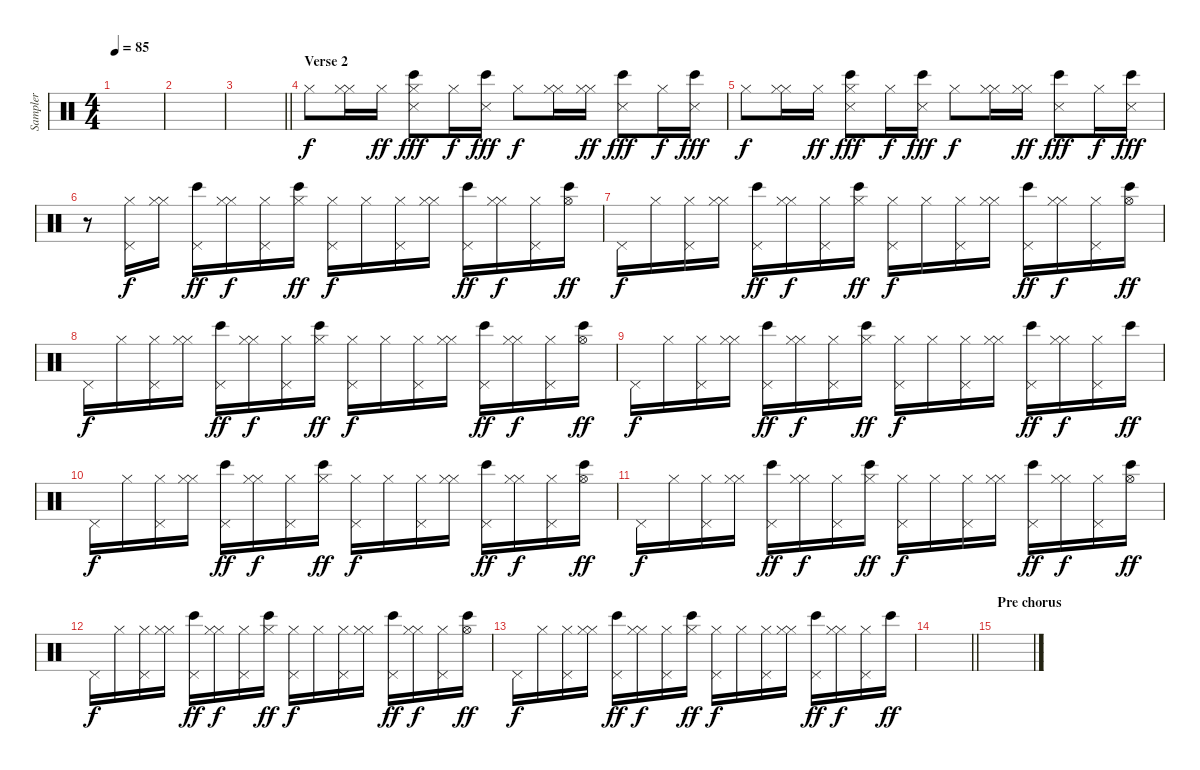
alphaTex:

\track ("Sampler" "Sampler") {instrument percussion}
\staff {score}
\articulation defaults
\ts (4 4)
\tempo 85
\clef neutral
\ks c
|
|
\barLineRight lightlight
|
\section ("" "Verse 2")
"Hi-Hat (closed)".8{dy f} ("Hi-Hat (closed)" "Hi-Hat (closed)").16 "Hi-Hat (closed)".16{dy ff} ("Hi-Hat (closed)" "Snare (side stick) 3" "Bongo High (hit)").8{dy fff} "Hi-Hat (closed)".16{dy f} ("Snare (side stick) 3" "Bongo High (hit)").16{dy fff} "Hi-Hat (closed)".8{dy f} ("Hi-Hat (closed)" "Hi-Hat (closed)").16 ("Hi-Hat (closed)" "Hi-Hat (closed)").16{dy ff} ("Snare (side stick) 3" "Bongo High (hit)").8{dy fff} "Hi-Hat (closed)".16{dy f} ("Snare (side stick) 3" "Bongo High (hit)").16{dy fff} |
"Hi-Hat (closed)".8{dy f} ("Hi-Hat (closed)" "Hi-Hat (closed)").16 "Hi-Hat (closed)".16{dy ff} ("Hi-Hat (closed)" "Snare (side stick) 3" "Bongo High (hit)").8{dy fff} "Hi-Hat (closed)".16{dy f} ("Snare (side stick) 3" "Bongo High (hit)").16{dy fff} "Hi-Hat (closed)".8{dy f} ("Hi-Hat (closed)" "Hi-Hat (closed)").16 ("Hi-Hat (closed)" "Hi-Hat (closed)").16{dy ff} ("Snare (side stick) 3" "Bongo High (hit)").8{dy fff} "Hi-Hat (closed)".16{dy f} ("Snare (side stick) 3" "Bongo High (hit)").16{dy fff} |
r.8 ("Pedal Hi-Hat (hit)" "Hi-Hat (closed)").16{dy f} ("Hi-Hat (closed)" "Hi-Hat (closed)").16 ("Pedal Hi-Hat (hit)" "Bongo High (hit)").16{dy ff} ("Hi-Hat (closed)" "Hi-Hat (closed)").16{dy f} ("Pedal Hi-Hat (hit)" "Hi-Hat (closed)").16 ("Hi-Hat (closed)" "Bongo High (hit)").16{dy ff} ("Pedal Hi-Hat (hit)" "Hi-Hat (closed)").16{dy f} "Hi-Hat (closed)".16 ("Pedal Hi-Hat (hit)" "Hi-Hat (closed)").16 ("Hi-Hat (closed)" "Hi-Hat (closed)").16 ("Pedal Hi-Hat (hit)" "Bongo High (hit)").16{dy ff} ("Hi-Hat (closed)" "Hi-Hat (closed)").16{dy f} ("Pedal Hi-Hat (hit)" "Hi-Hat (closed)").16 ("Hi-Hat (open)" "Bongo High (hit)").16{dy ff} |
"Pedal Hi-Hat (hit)".16{dy f} "Hi-Hat (closed)".16 ("Pedal Hi-Hat (hit)" "Hi-Hat (closed)").16 ("Hi-Hat (closed)" "Hi-Hat (closed)").16 ("Pedal Hi-Hat (hit)" "Bongo High (hit)").16{dy ff} ("Hi-Hat (closed)" "Hi-Hat (closed)").16{dy f} ("Pedal Hi-Hat (hit)" "Hi-Hat (closed)").16 ("Hi-Hat (closed)" "Bongo High (hit)").16{dy ff} ("Pedal Hi-Hat (hit)" "Hi-Hat (closed)").16{dy f} "Hi-Hat (closed)".16 ("Pedal Hi-Hat (hit)" "Hi-Hat (closed)").16 ("Hi-Hat (closed)" "Hi-Hat (closed)").16 ("Pedal Hi-Hat (hit)" "Bongo High (hit)").16{dy ff} ("Hi-Hat (closed)" "Hi-Hat (closed)").16{dy f} ("Pedal Hi-Hat (hit)" "Hi-Hat (closed)").16 ("Hi-Hat (open)" "Bongo High (hit)").16{dy ff} |
"Pedal Hi-Hat (hit)".16{dy f} "Hi-Hat (closed)".16 ("Pedal Hi-Hat (hit)" "Hi-Hat (closed)").16 ("Hi-Hat (closed)" "Hi-Hat (closed)").16 ("Pedal Hi-Hat (hit)" "Bongo High (hit)").16{dy ff} ("Hi-Hat (closed)" "Hi-Hat (closed)").16{dy f} ("Pedal Hi-Hat (hit)" "Hi-Hat (closed)").16 ("Hi-Hat (closed)" "Bongo High (hit)").16{dy ff} ("Pedal Hi-Hat (hit)" "Hi-Hat (closed)").16{dy f} "Hi-Hat (closed)".16 ("Pedal Hi-Hat (hit)" "Hi-Hat (closed)").16 ("Hi-Hat (closed)" "Hi-Hat (closed)").16 ("Pedal Hi-Hat (hit)" "Bongo High (hit)").16{dy ff} ("Hi-Hat (closed)" "Hi-Hat (closed)").16{dy f} ("Pedal Hi-Hat (hit)" "Hi-Hat (closed)").16 ("Hi-Hat (open)" "Bongo High (hit)").16{dy ff} |
"Pedal Hi-Hat (hit)".16{dy f} "Hi-Hat (closed)".16 ("Pedal Hi-Hat (hit)" "Hi-Hat (closed)").16 ("Hi-Hat (closed)" "Hi-Hat (closed)").16 ("Pedal Hi-Hat (hit)" "Bongo High (hit)").16{dy ff} ("Hi-Hat (closed)" "Hi-Hat (closed)").16{dy f} ("Pedal Hi-Hat (hit)" "Hi-Hat (closed)").16 ("Hi-Hat (closed)" "Bongo High (hit)").16{dy ff} ("Pedal Hi-Hat (hit)" "Hi-Hat (closed)").16{dy f} "Hi-Hat (closed)".16 ("Pedal Hi-Hat (hit)" "Hi-Hat (closed)").16 ("Hi-Hat (closed)" "Hi-Hat (closed)").16 ("Pedal Hi-Hat (hit)" "Bongo High (hit)").16{dy ff} ("Hi-Hat (closed)" "Hi-Hat (closed)").16{dy f} ("Pedal Hi-Hat (hit)" "Hi-Hat (closed)").16 "Bongo High (hit)".16{dy ff} |
"Pedal Hi-Hat (hit)".16{dy f} "Hi-Hat (closed)".16 ("Pedal Hi-Hat (hit)" "Hi-Hat (closed)").16 ("Hi-Hat (closed)" "Hi-Hat (closed)").16 ("Pedal Hi-Hat (hit)" "Bongo High (hit)").16{dy ff} ("Hi-Hat (closed)" "Hi-Hat (closed)").16{dy f} ("Pedal Hi-Hat (hit)" "Hi-Hat (closed)").16 ("Hi-Hat (closed)" "Bongo High (hit)").16{dy ff} ("Pedal Hi-Hat (hit)" "Hi-Hat (closed)").16{dy f} "Hi-Hat (closed)".16 ("Pedal Hi-Hat (hit)" "Hi-Hat (closed)").16 ("Hi-Hat (closed)" "Hi-Hat (closed)").16 ("Pedal Hi-Hat (hit)" "Bongo High (hit)").16{dy ff} ("Hi-Hat (closed)" "Hi-Hat (closed)").16{dy f} ("Pedal Hi-Hat (hit)" "Hi-Hat (closed)").16 ("Hi-Hat (open)" "Bongo High (hit)").16{dy ff} |
"Pedal Hi-Hat (hit)".16{dy f} "Hi-Hat (closed)".16 ("Pedal Hi-Hat (hit)" "Hi-Hat (closed)").16 ("Hi-Hat (closed)" "Hi-Hat (closed)").16 ("Pedal Hi-Hat (hit)" "Bongo High (hit)").16{dy ff} ("Hi-Hat (closed)" "Hi-Hat (closed)").16{dy f} ("Pedal Hi-Hat (hit)" "Hi-Hat (closed)").16 ("Hi-Hat (closed)" "Bongo High (hit)").16{dy ff} ("Pedal Hi-Hat (hit)" "Hi-Hat (closed)").16{dy f} "Hi-Hat (closed)".16 ("Pedal Hi-Hat (hit)" "Hi-Hat (closed)").16 ("Hi-Hat (closed)" "Hi-Hat (closed)").16 ("Pedal Hi-Hat (hit)" "Bongo High (hit)").16{dy ff} ("Hi-Hat (closed)" "Hi-Hat (closed)").16{dy f} ("Pedal Hi-Hat (hit)" "Hi-Hat (closed)").16 ("Hi-Hat (open)" "Bongo High (hit)").16{dy ff} |
"Pedal Hi-Hat (hit)".16{dy f} "Hi-Hat (closed)".16 ("Pedal Hi-Hat (hit)" "Hi-Hat (closed)").16 ("Hi-Hat (closed)" "Hi-Hat (closed)").16 ("Pedal Hi-Hat (hit)" "Bongo High (hit)").16{dy ff} ("Hi-Hat (closed)" "Hi-Hat (closed)").16{dy f} ("Pedal Hi-Hat (hit)" "Hi-Hat (closed)").16 ("Hi-Hat (closed)" "Bongo High (hit)").16{dy ff} ("Pedal Hi-Hat (hit)" "Hi-Hat (closed)").16{dy f} "Hi-Hat (closed)".16 ("Pedal Hi-Hat (hit)" "Hi-Hat (closed)").16 ("Hi-Hat (closed)" "Hi-Hat (closed)").16 ("Pedal Hi-Hat (hit)" "Bongo High (hit)").16{dy ff} ("Hi-Hat (closed)" "Hi-Hat (closed)").16{dy f} ("Pedal Hi-Hat (hit)" "Hi-Hat (closed)").16 ("Hi-Hat (open)" "Bongo High (hit)").16{dy ff} |
"Pedal Hi-Hat (hit)".16{dy f} "Hi-Hat (closed)".16 ("Pedal Hi-Hat (hit)" "Hi-Hat (closed)").16 ("Hi-Hat (closed)" "Hi-Hat (closed)").16 ("Pedal Hi-Hat (hit)" "Bongo High (hit)").16{dy ff} ("Hi-Hat (closed)" "Hi-Hat (closed)").16{dy f} ("Pedal Hi-Hat (hit)" "Hi-Hat (closed)").16 ("Hi-Hat (closed)" "Bongo High (hit)").16{dy ff} ("Pedal Hi-Hat (hit)" "Hi-Hat (closed)").16{dy f} "Hi-Hat (closed)".16 ("Pedal Hi-Hat (hit)" "Hi-Hat (closed)").16 ("Hi-Hat (closed)" "Hi-Hat (closed)").16 ("Pedal Hi-Hat (hit)" "Bongo High (hit)").16{dy ff} ("Hi-Hat (closed)" "Hi-Hat (closed)").16{dy f} ("Pedal Hi-Hat (hit)" "Hi-Hat (closed)").16 "Bongo High (hit)".16{dy ff} |
\barLineRight lightlight
|
\section ("" "Pre chorus")
